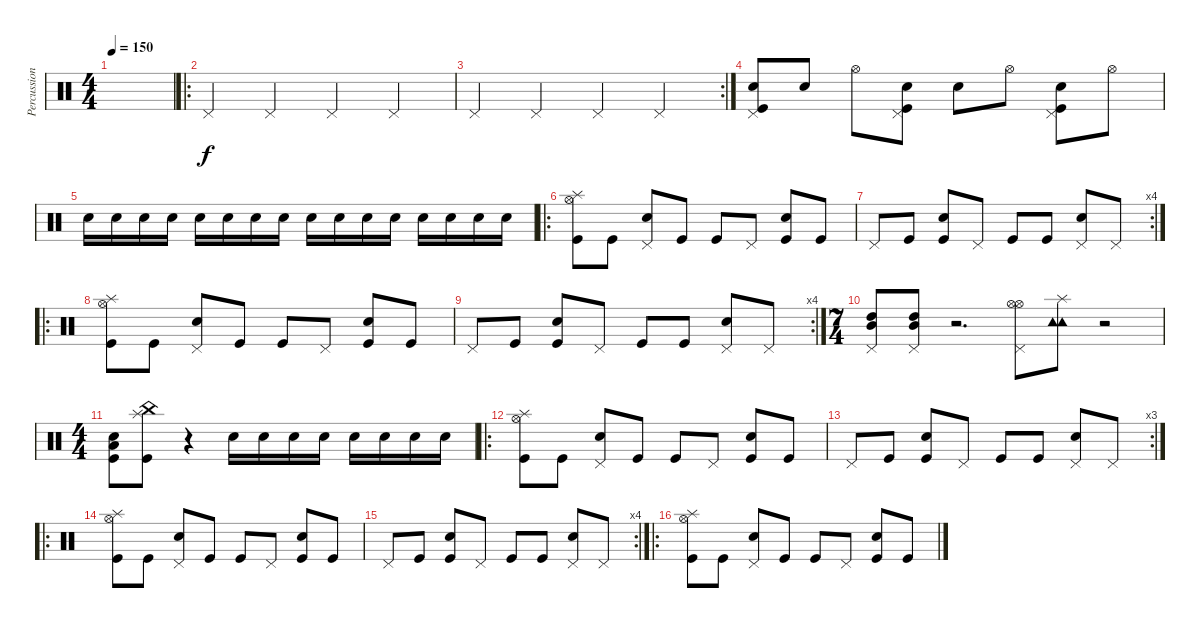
\track ("Percussion" "Percussion") {instrument percussion}
\staff {score}
\articulation defaults
\ts (4 4)
\tempo 150
\clef neutral
\ks c
|
\ro "Pedal Hi-Hat (hit)".4 "Pedal Hi-Hat (hit)".4 "Pedal Hi-Hat (hit)".4 "Pedal Hi-Hat (hit)".4
|
\rc 2 "Pedal Hi-Hat (hit)".4 "Pedal Hi-Hat (hit)".4 "Pedal Hi-Hat (hit)".4 "Pedal Hi-Hat (hit)".4
|
("Kick (hit)" "Snare (hit) 2" "Pedal Hi-Hat (hit)").8 "Snare (hit) 2".8 "Hi-Hat (open)".8 ("Kick (hit)" "Snare (hit) 2" "Pedal Hi-Hat (hit)").8 "Snare (hit) 2".8 "Hi-Hat (open)".8 ("Kick (hit)" "Snare (hit) 2" "Pedal Hi-Hat (hit)").8 "Hi-Hat (open)".8 |
"Snare (hit) 2".16 "Snare (hit) 2".16 "Snare (hit) 2".16 "Snare (hit) 2".16 "Snare (hit) 2".16 "Snare (hit) 2".16 "Snare (hit) 2".16 "Snare (hit) 2".16 "Snare (hit) 2".16 "Snare (hit) 2".16 "Snare (hit) 2".16 "Snare (hit) 2".16 "Snare (hit) 2".16 "Snare (hit) 2".16 "Snare (hit) 2".16 "Snare (hit) 2".16 |
\ro
("Kick (hit)" "Hi-Hat (open)" "Splash (hit)").8 "Kick (hit)".8 ("Pedal Hi-Hat (hit)" "Snare (hit) 2").8 "Kick (hit)".8 "Kick (hit)".8 "Pedal Hi-Hat (hit)".8 ("Kick (hit)" "Snare (hit) 2").8 "Kick (hit)".8 |
\rc 4 "Pedal Hi-Hat (hit)".8 "Kick (hit)".8
("Kick (hit)" "Snare (hit) 2").8 "Pedal Hi-Hat (hit)".8 "Kick (hit)".8 "Kick (hit)".8 ("Pedal Hi-Hat (hit)" "Snare (hit) 2").8 "Pedal Hi-Hat (hit)".8 |
\ro
("Kick (hit)" "Hi-Hat (open)" "Splash (hit)").8 "Kick (hit)".8 ("Pedal Hi-Hat (hit)" "Snare (hit) 2").8 "Kick (hit)".8 "Kick (hit)".8 "Pedal Hi-Hat (hit)".8 ("Kick (hit)" "Snare (hit) 2").8 "Kick (hit)".8 |
\rc 4 "Pedal Hi-Hat (hit)".8 "Kick (hit)".8
("Kick (hit)" "Snare (hit) 2").8 "Pedal Hi-Hat (hit)".8 "Kick (hit)".8 "Kick (hit)".8 ("Pedal Hi-Hat (hit)" "Snare (hit) 2").8 "Pedal Hi-Hat (hit)".8 |
\ts (7 4)
("High Tom (hit)" "Pedal Hi-Hat (hit)" "Mid Tom (hit)").8 ("High Tom (hit)" "Pedal Hi-Hat (hit)" "Mid Tom (hit)").8 r.2{d} ("Pedal Hi-Hat (hit)" "Hi-Hat (open)" "Hi-Hat (open)").8 ("Tambourine (hit)" "Tambourine (hit)" "Splash (hit)").8 r.2 |
\ts (4 4)
("Snare (hit) 2" "Kick (hit)" "Low Tom (hit)").8 ("Kick (hit)" "China (hit)" "Splash (hit)").8 r.4 "Snare (hit) 2".16 "Snare (hit) 2".16 "Snare (hit) 2".16 "Snare (hit) 2".16 "Snare (hit) 2".16 "Snare (hit) 2".16 "Snare (hit) 2".16 "Snare (hit) 2".16 |
\ro
("Kick (hit)" "Hi-Hat (open)" "Splash (hit)").8 "Kick (hit)".8 ("Pedal Hi-Hat (hit)" "Snare (hit) 2").8 "Kick (hit)".8 "Kick (hit)".8 "Pedal Hi-Hat (hit)".8 ("Kick (hit)" "Snare (hit) 2").8 "Kick (hit)".8 |
\rc 3 "Pedal Hi-Hat (hit)".8 "Kick (hit)".8
("Kick (hit)" "Snare (hit) 2").8 "Pedal Hi-Hat (hit)".8 "Kick (hit)".8 "Kick (hit)".8 ("Pedal Hi-Hat (hit)" "Snare (hit) 2").8 "Pedal Hi-Hat (hit)".8 |
\ro
("Kick (hit)" "Hi-Hat (open)" "Splash (hit)").8 "Kick (hit)".8 ("Pedal Hi-Hat (hit)" "Snare (hit) 2").8 "Kick (hit)".8 "Kick (hit)".8 "Pedal Hi-Hat (hit)".8 ("Kick (hit)" "Snare (hit) 2").8 "Kick (hit)".8 |
\rc 4 "Pedal Hi-Hat (hit)".8 "Kick (hit)".8
("Kick (hit)" "Snare (hit) 2").8 "Pedal Hi-Hat (hit)".8 "Kick (hit)".8 "Kick (hit)".8 ("Pedal Hi-Hat (hit)" "Snare (hit) 2").8 "Pedal Hi-Hat (hit)".8 |
\ro
("Kick (hit)" "Hi-Hat (open)" "Splash (hit)").8 "Kick (hit)".8 ("Pedal Hi-Hat (hit)" "Snare (hit) 2").8 "Kick (hit)".8 "Kick (hit)".8 "Pedal Hi-Hat (hit)".8 ("Kick (hit)" "Snare (hit) 2").8 "Kick (hit)".8
